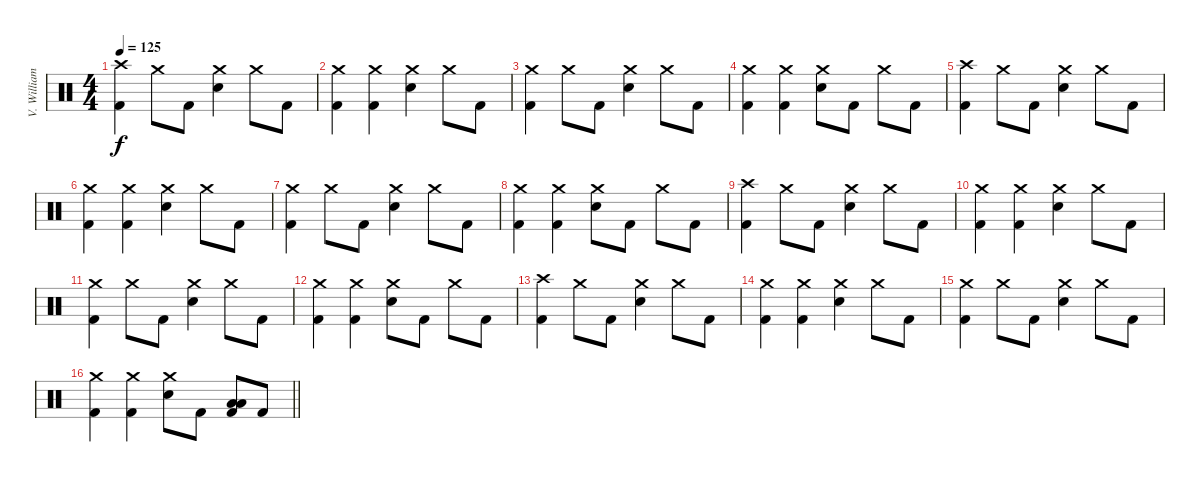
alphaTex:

\track ("V. Williams (Drums)" "V. William") {instrument percussion}
\staff {score}
\articulation defaults
\ts (4 4)
\section ("" "")
\tempo 125
\clef neutral
\ks c
("Crash high (hit)" "Kick (hit) 2").4{dy f} "Crash medium (hit)".8 "Kick (hit) 2".8 ("Crash medium (hit)" "Electric Snare (hit)").4 "Crash medium (hit)".8 "Kick (hit) 2".8 |
("Crash medium (hit)" "Kick (hit) 2").4 ("Crash medium (hit)" "Kick (hit) 2").4 ("Crash medium (hit)" "Electric Snare (hit)").4 "Crash medium (hit)".8 "Kick (hit) 2".8 |
("Crash medium (hit)" "Kick (hit) 2").4 "Crash medium (hit)".8 "Kick (hit) 2".8 ("Crash medium (hit)" "Electric Snare (hit)").4 "Crash medium (hit)".8 "Kick (hit) 2".8 |
("Crash medium (hit)" "Kick (hit) 2").4 ("Crash medium (hit)" "Kick (hit) 2").4 ("Crash medium (hit)" "Electric Snare (hit)").8 "Kick (hit) 2".8 "Crash medium (hit)".8 "Kick (hit) 2".8 |
("Crash high (hit)" "Kick (hit) 2").4 "Crash medium (hit)".8 "Kick (hit) 2".8 ("Crash medium (hit)" "Electric Snare (hit)").4 "Crash medium (hit)".8 "Kick (hit) 2".8 |
("Crash medium (hit)" "Kick (hit) 2").4 ("Crash medium (hit)" "Kick (hit) 2").4 ("Crash medium (hit)" "Electric Snare (hit)").4 "Crash medium (hit)".8 "Kick (hit) 2".8 |
("Crash medium (hit)" "Kick (hit) 2").4 "Crash medium (hit)".8 "Kick (hit) 2".8 ("Crash medium (hit)" "Electric Snare (hit)").4 "Crash medium (hit)".8 "Kick (hit) 2".8 |
("Crash medium (hit)" "Kick (hit) 2").4 ("Crash medium (hit)" "Kick (hit) 2").4 ("Crash medium (hit)" "Electric Snare (hit)").8 "Kick (hit) 2".8 "Crash medium (hit)".8 "Kick (hit) 2".8 |
("Crash high (hit)" "Kick (hit) 2").4 "Crash medium (hit)".8 "Kick (hit) 2".8 ("Crash medium (hit)" "Electric Snare (hit)").4 "Crash medium (hit)".8 "Kick (hit) 2".8 |
("Crash medium (hit)" "Kick (hit) 2").4 ("Crash medium (hit)" "Kick (hit) 2").4 ("Crash medium (hit)" "Electric Snare (hit)").4 "Crash medium (hit)".8 "Kick (hit) 2".8 |
("Crash medium (hit)" "Kick (hit) 2").4 "Crash medium (hit)".8 "Kick (hit) 2".8 ("Crash medium (hit)" "Electric Snare (hit)").4 "Crash medium (hit)".8 "Kick (hit) 2".8 |
("Crash medium (hit)" "Kick (hit) 2").4 ("Crash medium (hit)" "Kick (hit) 2").4 ("Crash medium (hit)" "Electric Snare (hit)").8 "Kick (hit) 2".8 "Crash medium (hit)".8 "Kick (hit) 2".8 |
("Crash high (hit)" "Kick (hit) 2").4 "Crash medium (hit)".8 "Kick (hit) 2".8 ("Crash medium (hit)" "Electric Snare (hit)").4 "Crash medium (hit)".8 "Kick (hit) 2".8 |
("Crash medium (hit)" "Kick (hit) 2").4 ("Crash medium (hit)" "Kick (hit) 2").4 ("Crash medium (hit)" "Electric Snare (hit)").4 "Crash medium (hit)".8 "Kick (hit) 2".8 |
("Crash medium (hit)" "Kick (hit) 2").4 "Crash medium (hit)".8 "Kick (hit) 2".8 ("Crash medium (hit)" "Electric Snare (hit)").4 "Crash medium (hit)".8 "Kick (hit) 2".8 |
\barLineRight lightlight
("Crash medium (hit)" "Kick (hit) 2").4 ("Crash medium (hit)" "Kick (hit) 2").4 ("Crash medium (hit)" "Electric Snare (hit)").8 "Kick (hit) 2".8 ("Low Tom (hit)" "Low Floor Tom (hit)" "Kick (hit) 2").8 "Kick (hit) 2".8
